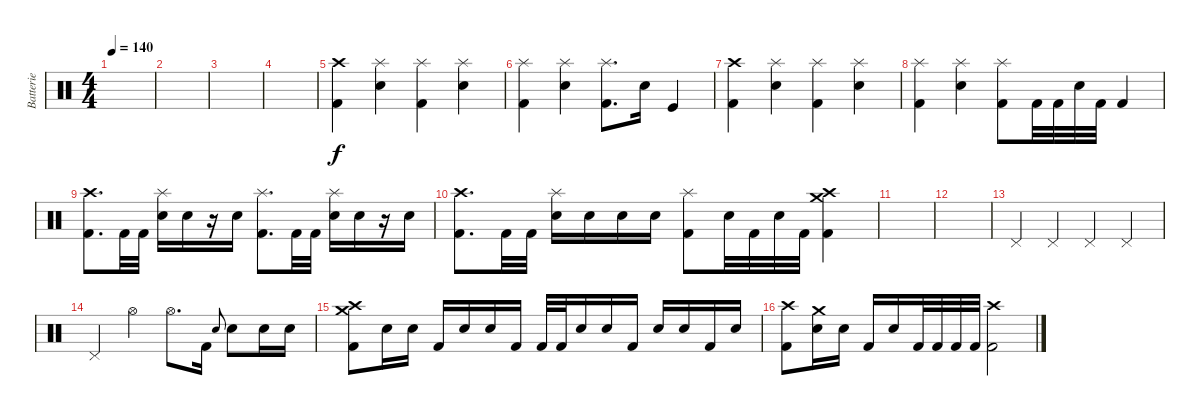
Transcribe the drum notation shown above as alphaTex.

\track ("Batterie" "Batterie") {instrument percussion}
\staff {score}
\articulation defaults
\ts (4 4)
\tempo 140
\clef neutral
\ks c
|
|
|
|
("Crash high (hit)" "Kick (hit) 2").4 ("Splash (hit)" "Electric Snare (hit)").4 ("Splash (hit)" "Kick (hit) 2").4 ("Splash (hit)" "Electric Snare (hit)").4 |
("Splash (hit)" "Kick (hit) 2").4 ("Splash (hit)" "Electric Snare (hit)").4 ("Splash (hit)" "Kick (hit) 2").8{d} "Electric Snare (hit)".16 "Kick (hit)".4 |
("Crash high (hit)" "Kick (hit) 2").4 ("Splash (hit)" "Electric Snare (hit)").4 ("Splash (hit)" "Kick (hit) 2").4 ("Splash (hit)" "Electric Snare (hit)").4 |
("Splash (hit)" "Kick (hit) 2").4 ("Splash (hit)" "Electric Snare (hit)").4 ("Splash (hit)" "Kick (hit) 2").8 "Kick (hit) 2".32 "Kick (hit) 2".32 "Electric Snare (hit)".32 "Kick (hit) 2".32 "Kick (hit) 2".4 |
("Crash high (hit)" "Kick (hit) 2").8{d} "Kick (hit) 2".32 "Kick (hit) 2".32 ("Splash (hit)" "Electric Snare (hit)").16 "Electric Snare (hit)".16 r.16 "Electric Snare (hit)".16 ("Splash (hit)" "Kick (hit) 2").8{d} "Kick (hit) 2".32 "Kick (hit) 2".32 ("Splash (hit)" "Electric Snare (hit)").16 "Electric Snare (hit)".16 r.16 "Electric Snare (hit)".16 |
("Crash high (hit)" "Kick (hit) 2").8{d} "Kick (hit) 2".32 "Kick (hit) 2".32 ("Splash (hit)" "Electric Snare (hit)").16 "Electric Snare (hit)".16 "Electric Snare (hit)".16 "Electric Snare (hit)".16 ("Splash (hit)" "Kick (hit) 2").8 "Electric Snare (hit)".32 "Kick (hit) 2".32 "Electric Snare (hit)".32 "Kick (hit) 2".32 ("Crash high (hit)" "Crash medium (hit)" "Kick (hit) 2").4 |
|
|
"Pedal Hi-Hat (hit)".4 "Pedal Hi-Hat (hit)".4 "Pedal Hi-Hat (hit)".4 "Pedal Hi-Hat (hit)".4 |
"Pedal Hi-Hat (hit)".4 "Hi-Hat (open)".4 "Hi-Hat (open)".8{d} "Kick (hit) 2".16 "Electric Snare (hit)".8{gr onbeat} "Electric Snare (hit)".8 "Electric Snare (hit)".16 "Electric Snare (hit)".16 |
("Crash high (hit)" "Crash medium (hit)" "Kick (hit) 2").8 "Electric Snare (hit)".16 "Electric Snare (hit)".16 "Kick (hit) 2".16 "Electric Snare (hit)".16 "Electric Snare (hit)".16 "Kick (hit) 2".16 "Kick (hit) 2".32 "Kick (hit) 2".32 "Electric Snare (hit)".16 "Electric Snare (hit)".16 "Kick (hit) 2".16 "Electric Snare (hit)".16 "Electric Snare (hit)".16 "Kick (hit) 2".16 "Electric Snare (hit)".16 |
("Crash high (hit)" "Kick (hit) 2").8 ("Crash medium (hit)" "Electric Snare (hit)").16 "Electric Snare (hit)".16 "Kick (hit) 2".16 "Electric Snare (hit)".16 "Kick (hit) 2".32 "Kick (hit) 2".32 "Kick (hit) 2".32 "Kick (hit) 2".32 ("Crash high (hit)" "Kick (hit) 2").2
